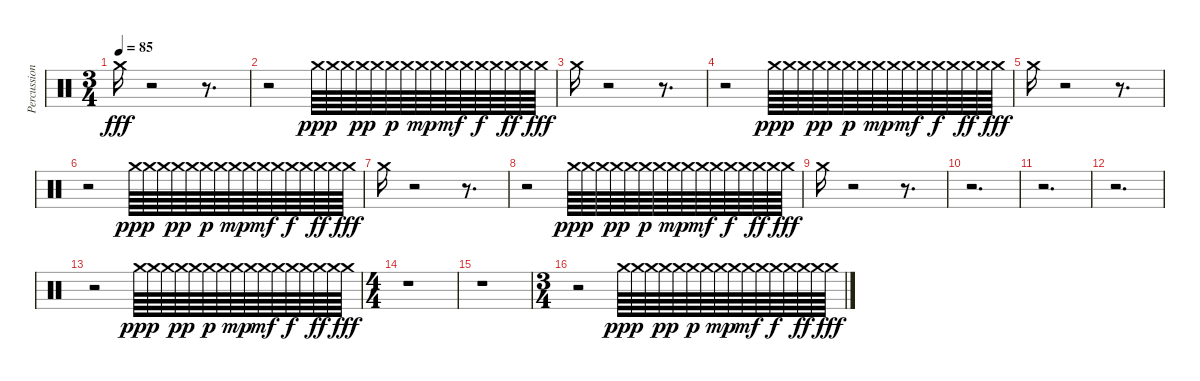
\track ("Percussion" "Percussion") {instrument percussion}
\staff {score}
\articulation defaults
\ts (3 4)
\tempo 85
\clef neutral
\ks c "Crash medium (hit)".16{dy fff}
r.2 r.8{d} |
r.2 "Crash medium (hit)".64{dy ppp} "Crash medium (hit)".64 "Crash medium (hit)".64 "Crash medium (hit)".64{dy pp} "Crash medium (hit)".64 "Crash medium (hit)".64{dy p} "Crash medium (hit)".64 "Crash medium (hit)".64{dy mp} "Crash medium (hit)".64 "Crash medium (hit)".64{dy mf} "Crash medium (hit)".64 "Crash medium (hit)".64{dy f} "Crash medium (hit)".64 "Crash medium (hit)".64{dy ff} "Crash medium (hit)".64 "Crash medium (hit)".64{dy fff} |
"Crash medium (hit)".16 r.2 r.8{d} |
r.2 "Crash medium (hit)".64{dy ppp} "Crash medium (hit)".64 "Crash medium (hit)".64 "Crash medium (hit)".64{dy pp} "Crash medium (hit)".64 "Crash medium (hit)".64{dy p} "Crash medium (hit)".64 "Crash medium (hit)".64{dy mp} "Crash medium (hit)".64 "Crash medium (hit)".64{dy mf} "Crash medium (hit)".64 "Crash medium (hit)".64{dy f} "Crash medium (hit)".64 "Crash medium (hit)".64{dy ff} "Crash medium (hit)".64 "Crash medium (hit)".64{dy fff} |
"Crash medium (hit)".16 r.2 r.8{d} |
r.2 "Crash medium (hit)".64{dy ppp} "Crash medium (hit)".64 "Crash medium (hit)".64 "Crash medium (hit)".64{dy pp} "Crash medium (hit)".64 "Crash medium (hit)".64{dy p} "Crash medium (hit)".64 "Crash medium (hit)".64{dy mp} "Crash medium (hit)".64 "Crash medium (hit)".64{dy mf} "Crash medium (hit)".64 "Crash medium (hit)".64{dy f} "Crash medium (hit)".64 "Crash medium (hit)".64{dy ff} "Crash medium (hit)".64 "Crash medium (hit)".64{dy fff} |
"Crash medium (hit)".16 r.2 r.8{d} |
r.2 "Crash medium (hit)".64{dy ppp} "Crash medium (hit)".64 "Crash medium (hit)".64 "Crash medium (hit)".64{dy pp} "Crash medium (hit)".64 "Crash medium (hit)".64{dy p} "Crash medium (hit)".64 "Crash medium (hit)".64{dy mp} "Crash medium (hit)".64 "Crash medium (hit)".64{dy mf} "Crash medium (hit)".64 "Crash medium (hit)".64{dy f} "Crash medium (hit)".64 "Crash medium (hit)".64{dy ff} "Crash medium (hit)".64 "Crash medium (hit)".64{dy fff} |
"Crash medium (hit)".16 r.2 r.8{d} |
r.2{d} |
r.2{d} |
r.2{d} |
r.2 "Crash medium (hit)".64{dy ppp} "Crash medium (hit)".64 "Crash medium (hit)".64 "Crash medium (hit)".64{dy pp} "Crash medium (hit)".64 "Crash medium (hit)".64{dy p} "Crash medium (hit)".64 "Crash medium (hit)".64{dy mp} "Crash medium (hit)".64 "Crash medium (hit)".64{dy mf} "Crash medium (hit)".64 "Crash medium (hit)".64{dy f} "Crash medium (hit)".64 "Crash medium (hit)".64{dy ff} "Crash medium (hit)".64 "Crash medium (hit)".64{dy fff} |
\ts (4 4)
r.1 |
r.1 |
\ts (3 4)
r.2 "Crash medium (hit)".64{dy ppp} "Crash medium (hit)".64 "Crash medium (hit)".64 "Crash medium (hit)".64{dy pp} "Crash medium (hit)".64 "Crash medium (hit)".64{dy p} "Crash medium (hit)".64 "Crash medium (hit)".64{dy mp} "Crash medium (hit)".64 "Crash medium (hit)".64{dy mf} "Crash medium (hit)".64 "Crash medium (hit)".64{dy f} "Crash medium (hit)".64 "Crash medium (hit)".64{dy ff} "Crash medium (hit)".64 "Crash medium (hit)".64{dy fff}
